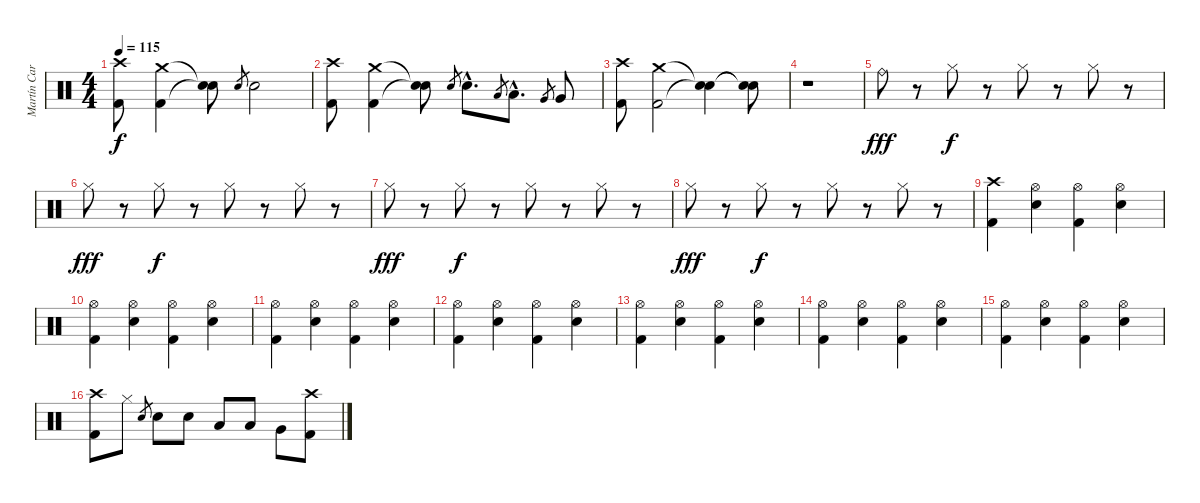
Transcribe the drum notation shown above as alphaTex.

\track ("Martín Carrizo" "Martín Car") {instrument percussion}
\staff {score}
\articulation defaults
\ts (4 4)
\tempo 115
\clef neutral
\ks c
("Crash high (hit)" "Kick (hit) 2").8{dy f} ("Crash medium (hit)" "Kick (hit) 2").4 ("Snare (hit)"{t} "Snare (hit)"{t}).8 "Snare (hit) 2".8{gr} "Snare (hit) 2".2 |
("Crash high (hit)" "Kick (hit) 2").8 ("Crash medium (hit)" "Kick (hit) 2").4 ("Snare (hit)"{t} "Snare (hit)"{t}).8 "Snare (hit) 2".8{gr} "Snare (hit) 2"{hac}.8{d} "Low Tom (hit)".8{gr} "Low Tom (hit)"{hac}.8{d} "Very Low Tom (hit)".8{gr} "Very Low Tom (hit)".8 |
("Crash high (hit)" "Kick (hit) 2").8 ("Crash medium (hit)" "Kick (hit) 2").2 ("Snare (hit)"{t} "Snare (hit)"{t}).4 ("Snare (hit)"{t} "Snare (hit)"{t}).8 |
r.1 |
"Ride (bell)".8{dy fff} r.8 "Hi-Hat (closed)".8{dy f} r.8 "Hi-Hat (closed)".8 r.8 "Hi-Hat (closed)".8 r.8 |
"Hi-Hat (closed)".8{dy fff} r.8 "Hi-Hat (closed)".8{dy f} r.8 "Hi-Hat (closed)".8 r.8 "Hi-Hat (closed)".8 r.8 |
"Hi-Hat (closed)".8{dy fff} r.8 "Hi-Hat (closed)".8{dy f} r.8 "Hi-Hat (closed)".8 r.8 "Hi-Hat (closed)".8 r.8 |
"Hi-Hat (closed)".8{dy fff} r.8 "Hi-Hat (closed)".8{dy f} r.8 "Hi-Hat (closed)".8 r.8 "Hi-Hat (closed)".8 r.8 |
("Crash high (hit)" "Kick (hit) 2").4 ("Hi-Hat (open)" "Snare (hit) 2").4 ("Hi-Hat (open)" "Kick (hit) 2").4 ("Hi-Hat (open)" "Snare (hit) 2").4 |
("Hi-Hat (open)" "Kick (hit) 2").4 ("Hi-Hat (open)" "Snare (hit) 2").4 ("Hi-Hat (open)" "Kick (hit) 2").4 ("Hi-Hat (open)" "Snare (hit) 2").4 |
("Hi-Hat (open)" "Kick (hit) 2").4 ("Hi-Hat (open)" "Snare (hit) 2").4 ("Hi-Hat (open)" "Kick (hit) 2").4 ("Hi-Hat (open)" "Snare (hit) 2").4 |
("Hi-Hat (open)" "Kick (hit) 2").4 ("Hi-Hat (open)" "Snare (hit) 2").4 ("Hi-Hat (open)" "Kick (hit) 2").4 ("Hi-Hat (open)" "Snare (hit) 2").4 |
("Hi-Hat (open)" "Kick (hit) 2").4 ("Hi-Hat (open)" "Snare (hit) 2").4 ("Hi-Hat (open)" "Kick (hit) 2").4 ("Hi-Hat (open)" "Snare (hit) 2").4 |
("Hi-Hat (open)" "Kick (hit) 2").4 ("Hi-Hat (open)" "Snare (hit) 2").4 ("Hi-Hat (open)" "Kick (hit) 2").4 ("Hi-Hat (open)" "Snare (hit) 2").4 |
("Hi-Hat (open)" "Kick (hit) 2").4 ("Hi-Hat (open)" "Snare (hit) 2").4 ("Hi-Hat (open)" "Kick (hit) 2").4 ("Hi-Hat (open)" "Snare (hit) 2").4 |
("Crash high (hit)" "Kick (hit) 2").8 "Hi-Hat (closed)".8 "Snare (hit) 2".8{gr} "Snare (hit) 2".8 "Snare (hit) 2".8 "Low Tom (hit)".8 "Low Tom (hit)".8 "Very Low Tom (hit)".8 ("Crash high (hit)" "Kick (hit) 2").8
